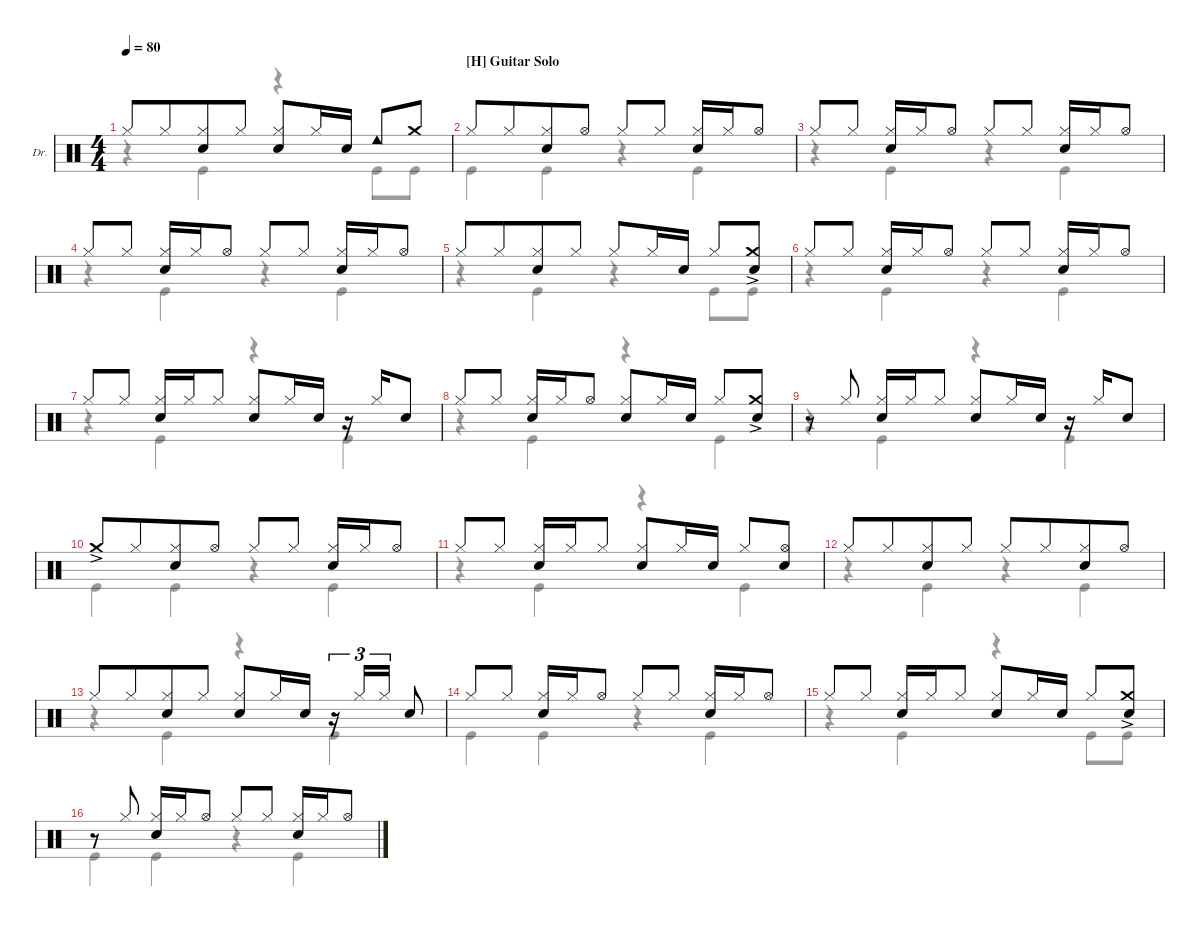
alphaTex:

\defaultSystemsLayout 4
\hideDynamics
\bracketExtendMode groupsimilarinstruments
\firstSystemTrackNameOrientation horizontal
\otherSystemsTrackNameOrientation horizontal
\track ("Drums" "Dr.") {multiBarRest instrument percussion}
\staff {score}
\articulation defaults
\voice
\ts (4 4)
\tempo 80
\clef neutral
\ks c "Hi-Hat (closed)".8{dy mf} "Hi-Hat (closed)".8{beam merge}
("Hi-Hat (closed)" "Snare (hit) 2").8 "Hi-Hat (closed)".8 ("Hi-Hat (closed)" "Snare (hit) 2").8 "Hi-Hat (closed)".16 "Snare (hit) 2".16 "Cowbell low (hit)".8 "Crash medium (hit)".8 |
\section ("H" "Guitar Solo")
"Hi-Hat (closed)".8 "Hi-Hat (closed)".8{beam merge} ("Hi-Hat (closed)" "Snare (hit) 2").8 "Hi-Hat (open)".8 "Hi-Hat (closed)".8 "Hi-Hat (closed)".8 ("Hi-Hat (closed)" "Snare (hit) 2").16 "Hi-Hat (closed)".16 "Hi-Hat (open)".8 |
"Hi-Hat (closed)".8 "Hi-Hat (closed)".8 ("Hi-Hat (closed)" "Snare (hit) 2").16 "Hi-Hat (closed)".16 "Hi-Hat (open)".8 "Hi-Hat (closed)".8 "Hi-Hat (closed)".8 ("Hi-Hat (closed)" "Snare (hit) 2").16 "Hi-Hat (closed)".16 "Hi-Hat (open)".8 |
"Hi-Hat (closed)".8 "Hi-Hat (closed)".8 ("Hi-Hat (closed)" "Snare (hit) 2").16 "Hi-Hat (closed)".16 "Hi-Hat (open)".8 "Hi-Hat (closed)".8 "Hi-Hat (closed)".8 ("Hi-Hat (closed)" "Snare (hit) 2").16 "Hi-Hat (closed)".16 "Hi-Hat (open)".8 |
"Hi-Hat (closed)".8 "Hi-Hat (closed)".8{beam merge} ("Hi-Hat (closed)" "Snare (hit) 2").8 "Hi-Hat (closed)".8 "Hi-Hat (closed)".8 "Hi-Hat (closed)".16 "Snare (hit) 2".16 "Hi-Hat (closed)".8 ("Crash medium (hit)"{ac} "Snare (hit) 2").8 |
"Hi-Hat (closed)".8 "Hi-Hat (closed)".8 ("Hi-Hat (closed)" "Snare (hit) 2").16 "Hi-Hat (closed)".16 "Hi-Hat (open)".8 "Hi-Hat (closed)".8 "Hi-Hat (closed)".8 ("Hi-Hat (closed)" "Snare (hit) 2").16 "Hi-Hat (closed)".16 "Hi-Hat (open)".8 |
"Hi-Hat (closed)".8 "Hi-Hat (closed)".8 ("Hi-Hat (closed)" "Snare (hit) 2").16 "Hi-Hat (closed)".16 "Hi-Hat (closed)".8 ("Hi-Hat (closed)" "Snare (hit) 2").8 "Hi-Hat (closed)".16 "Snare (hit) 2".16 r.16 "Hi-Hat (closed)".16 "Snare (hit) 2".8 |
"Hi-Hat (closed)".8 "Hi-Hat (closed)".8 ("Hi-Hat (closed)" "Snare (hit) 2").16 "Hi-Hat (closed)".16 "Hi-Hat (open)".8 ("Hi-Hat (closed)" "Snare (hit) 2").8 "Hi-Hat (closed)".16 "Snare (hit) 2".16 "Hi-Hat (closed)".8 ("Crash medium (hit)"{ac} "Snare (hit) 2").8 |
r.8 "Hi-Hat (closed)".8 ("Hi-Hat (closed)" "Snare (hit) 2").16 "Hi-Hat (closed)".16 "Hi-Hat (closed)".8 ("Hi-Hat (closed)" "Snare (hit) 2").8 "Hi-Hat (closed)".16 "Snare (hit) 2".16 r.16 "Hi-Hat (closed)".16 "Snare (hit) 2".8 |
"Crash medium (hit)"{ac}.8 "Hi-Hat (closed)".8{beam merge} ("Hi-Hat (closed)" "Snare (hit) 2").8 "Hi-Hat (open)".8 "Hi-Hat (closed)".8 "Hi-Hat (closed)".8 ("Hi-Hat (closed)" "Snare (hit) 2").16 "Hi-Hat (closed)".16 "Hi-Hat (open)".8 |
"Hi-Hat (closed)".8 "Hi-Hat (closed)".8 ("Hi-Hat (closed)" "Snare (hit) 2").16 "Hi-Hat (closed)".16 "Hi-Hat (closed)".8 ("Hi-Hat (closed)" "Snare (hit) 2").8 "Hi-Hat (closed)".16 "Snare (hit) 2".16 "Hi-Hat (closed)".8 ("Hi-Hat (open)" "Snare (hit) 2").8 |
"Hi-Hat (closed)".8 "Hi-Hat (closed)".8{beam merge} ("Hi-Hat (closed)" "Snare (hit) 2").8 "Hi-Hat (closed)".8 "Hi-Hat (closed)".8 "Hi-Hat (closed)".8{beam merge} ("Hi-Hat (closed)" "Snare (hit) 2").8 "Hi-Hat (open)".8 |
"Hi-Hat (closed)".8 "Hi-Hat (closed)".8{beam merge} ("Hi-Hat (closed)" "Snare (hit) 2").8 "Hi-Hat (closed)".8 ("Hi-Hat (closed)" "Snare (hit) 2").8 "Hi-Hat (closed)".16 "Snare (hit) 2".16 r.16{tu (3 2)} "Hi-Hat (closed)".16{tu (3 2)} "Hi-Hat (closed)".16{tu (3 2)} "Snare (hit) 2".8 |
"Hi-Hat (closed)".8 "Hi-Hat (closed)".8 ("Hi-Hat (closed)" "Snare (hit) 2").16 "Hi-Hat (closed)".16 "Hi-Hat (open)".8 "Hi-Hat (closed)".8 "Hi-Hat (closed)".8 ("Hi-Hat (closed)" "Snare (hit) 2").16 "Hi-Hat (closed)".16 "Hi-Hat (open)".8 |
"Hi-Hat (closed)".8 "Hi-Hat (closed)".8 ("Hi-Hat (closed)" "Snare (hit) 2").16 "Hi-Hat (closed)".16 "Hi-Hat (closed)".8 ("Hi-Hat (closed)" "Snare (hit) 2").8 "Hi-Hat (closed)".16 "Snare (hit) 2".16 "Hi-Hat (closed)".8 ("Crash medium (hit)"{ac} "Snare (hit) 2").8 |
r.8 "Hi-Hat (closed)".8 ("Hi-Hat (closed)" "Snare (hit) 2").16 "Hi-Hat (closed)".16 "Hi-Hat (open)".8 "Hi-Hat (closed)".8 "Hi-Hat (closed)".8 ("Hi-Hat (closed)" "Snare (hit) 2").16 "Hi-Hat (closed)".16 "Hi-Hat (open)".8
\voice
\clef neutral
\ottava regular
\simile none
\ks c
r.4{dy mf} "Kick (hit)".4 r.4 "Kick (hit)".8 "Kick (hit)".8 |
"Kick (hit)".4 "Kick (hit)".4 r.4 "Kick (hit)".4 |
r.4 "Kick (hit)".4 r.4 "Kick (hit)".4 |
r.4 "Kick (hit)".4 r.4 "Kick (hit)".4 |
r.4 "Kick (hit)".4 r.4 "Kick (hit)".8 "Kick (hit)".8 |
r.4 "Kick (hit)".4 r.4 "Kick (hit)".4 |
r.4 "Kick (hit)".4 r.4 "Kick (hit)".4 |
r.4 "Kick (hit)".4 r.4 "Kick (hit)".4 |
r.4 "Kick (hit)".4 r.4 "Kick (hit)".4 |
"Kick (hit)".4 "Kick (hit)".4 r.4 "Kick (hit)".4 |
r.4 "Kick (hit)".4 r.4 "Kick (hit)".4 |
r.4 "Kick (hit)".4 r.4 "Kick (hit)".4 |
r.4 "Kick (hit)".4 r.4 "Kick (hit)".4 |
"Kick (hit)".4 "Kick (hit)".4 r.4 "Kick (hit)".4 |
r.4 "Kick (hit)".4 r.4 "Kick (hit)".8 "Kick (hit)".8 |
"Kick (hit)".4 "Kick (hit)".4 r.4 "Kick (hit)".4
